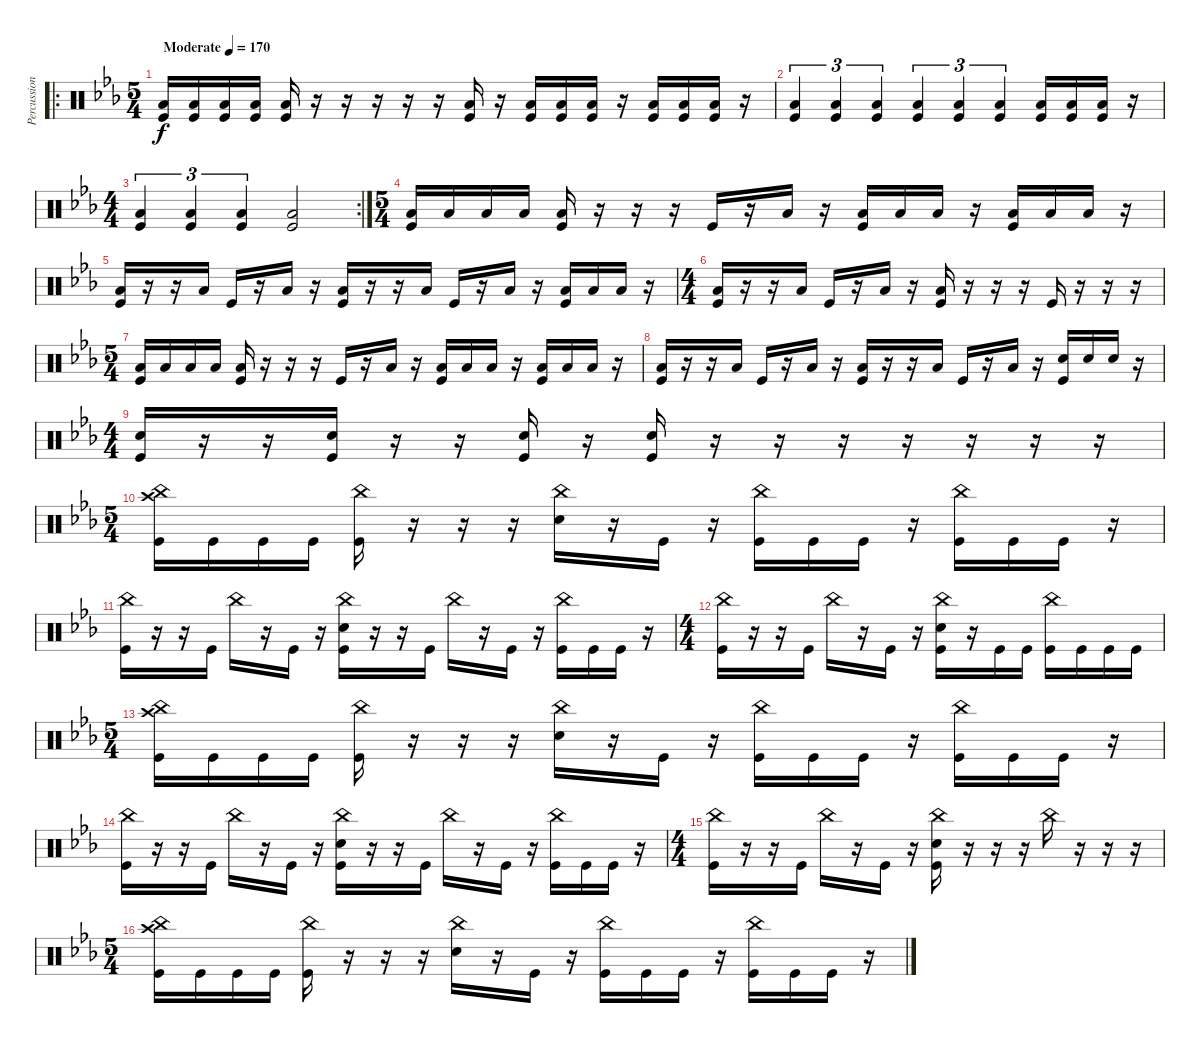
\track ("Percussion" "Percussion") {instrument percussion}
\staff {score}
\articulation defaults
\ro
\ts (5 4)
\tempo (170 "Moderate")
\clef neutral
\ks cminor
("Low Floor Tom (hit)" "Kick (hit)").16{dy f} ("Low Floor Tom (hit)" "Kick (hit)").16 ("Low Floor Tom (hit)" "Kick (hit)").16 ("Low Floor Tom (hit)" "Kick (hit)").16 ("Low Floor Tom (hit)" "Kick (hit)").16 r.16 r.16 r.16 r.16 r.16 ("Low Floor Tom (hit)" "Kick (hit)").16 r.16 ("Low Floor Tom (hit)" "Kick (hit)").16 ("Low Floor Tom (hit)" "Kick (hit)").16 ("Low Floor Tom (hit)" "Kick (hit)").16 r.16 ("Low Floor Tom (hit)" "Kick (hit)").16 ("Low Floor Tom (hit)" "Kick (hit)").16 ("Low Floor Tom (hit)" "Kick (hit)").16 r.16 |
("Low Floor Tom (hit)" "Kick (hit)").4{tu (3 2)} ("Low Floor Tom (hit)" "Kick (hit)").4{tu (3 2)} ("Low Floor Tom (hit)" "Kick (hit)").4{tu (3 2)} ("Low Floor Tom (hit)" "Kick (hit)").4{tu (3 2)} ("Low Floor Tom (hit)" "Kick (hit)").4{tu (3 2)} ("Low Floor Tom (hit)" "Kick (hit)").4{tu (3 2)} ("Low Floor Tom (hit)" "Kick (hit)").16 ("Low Floor Tom (hit)" "Kick (hit)").16 ("Low Floor Tom (hit)" "Kick (hit)").16 r.16 |
\rc 2
\ts (4 4)
("Low Floor Tom (hit)" "Kick (hit)").4{tu (3 2)} ("Low Floor Tom (hit)" "Kick (hit)").4{tu (3 2)} ("Low Floor Tom (hit)" "Kick (hit)").4{tu (3 2)} ("Low Floor Tom (hit)" "Kick (hit)").2 |
\ts (5 4)
("Low Floor Tom (hit)" "Kick (hit)").16 "Low Floor Tom (hit)".16 "Low Floor Tom (hit)".16 "Low Floor Tom (hit)".16 ("Low Floor Tom (hit)" "Kick (hit)").16 r.16 r.16 r.16 "Kick (hit)".16 r.16 "Low Floor Tom (hit)".16 r.16 ("Low Floor Tom (hit)" "Kick (hit)").16 "Low Floor Tom (hit)".16 "Low Floor Tom (hit)".16 r.16 ("Low Floor Tom (hit)" "Kick (hit)").16 "Low Floor Tom (hit)".16 "Low Floor Tom (hit)".16 r.16 |
("Low Floor Tom (hit)" "Kick (hit)").16 r.16 r.16 "Low Floor Tom (hit)".16 "Kick (hit)".16 r.16 "Low Floor Tom (hit)".16 r.16 ("Low Floor Tom (hit)" "Kick (hit)").16 r.16 r.16 "Low Floor Tom (hit)".16 "Kick (hit)".16 r.16 "Low Floor Tom (hit)".16 r.16 ("Low Floor Tom (hit)" "Kick (hit)").16 "Low Floor Tom (hit)".16 "Low Floor Tom (hit)".16 r.16 |
\ts (4 4)
("Low Floor Tom (hit)" "Kick (hit)").16 r.16 r.16 "Low Floor Tom (hit)".16 "Kick (hit)".16 r.16 "Low Floor Tom (hit)".16 r.16 ("Low Floor Tom (hit)" "Kick (hit)").16 r.16 r.16 r.16 "Kick (hit)".16 r.16 r.16 r.16 |
\ts (5 4)
("Low Floor Tom (hit)" "Kick (hit)").16 "Low Floor Tom (hit)".16 "Low Floor Tom (hit)".16 "Low Floor Tom (hit)".16 ("Low Floor Tom (hit)" "Kick (hit)").16 r.16 r.16 r.16 "Kick (hit)".16 r.16 "Low Floor Tom (hit)".16 r.16 ("Low Floor Tom (hit)" "Kick (hit)").16 "Low Floor Tom (hit)".16 "Low Floor Tom (hit)".16 r.16 ("Low Floor Tom (hit)" "Kick (hit)").16 "Low Floor Tom (hit)".16 "Low Floor Tom (hit)".16 r.16 |
("Low Floor Tom (hit)" "Kick (hit)").16 r.16 r.16 "Low Floor Tom (hit)".16 "Kick (hit)".16 r.16 "Low Floor Tom (hit)".16 r.16 ("Low Floor Tom (hit)" "Kick (hit)").16 r.16 r.16 "Low Floor Tom (hit)".16 "Kick (hit)".16 r.16 "Low Floor Tom (hit)".16 r.16 ("Snare (hit) 2" "Kick (hit)").16 "Snare (hit) 2".16 "Snare (hit) 2".16 r.16 |
\ts (4 4)
("Snare (hit) 2" "Kick (hit)").16 r.16 r.16 ("Snare (hit) 2" "Kick (hit)").16 r.16 r.16 ("Snare (hit) 2" "Kick (hit)").16 r.16 ("Snare (hit) 2" "Kick (hit)").16 r.16 r.16 r.16 r.16 r.16 r.16 r.16 |
\ts (5 4)
("China (hit)" "Crash high (hit)" "Kick (hit)").16 "Kick (hit)".16 "Kick (hit)".16 "Kick (hit)".16 ("China (hit)" "Kick (hit)").16 r.16 r.16 r.16 ("China (hit)" "Snare (hit) 2").16 r.16 "Kick (hit)".16 r.16 ("China (hit)" "Kick (hit)").16 "Kick (hit)".16 "Kick (hit)".16 r.16 ("China (hit)" "Kick (hit)").16 "Kick (hit)".16 "Kick (hit)".16 r.16 |
("China (hit)" "Kick (hit)").16 r.16 r.16 "Kick (hit)".16 "China (hit)".16 r.16 "Kick (hit)".16 r.16 ("China (hit)" "Snare (hit) 2" "Kick (hit)").16 r.16 r.16 "Kick (hit)".16 "China (hit)".16 r.16 "Kick (hit)".16 r.16 ("China (hit)" "Kick (hit)").16 "Kick (hit)".16 "Kick (hit)".16 r.16 |
\ts (4 4)
("China (hit)" "Kick (hit)").16 r.16 r.16 "Kick (hit)".16 "China (hit)".16 r.16 "Kick (hit)".16 r.16 ("China (hit)" "Snare (hit) 2" "Kick (hit)").16 r.16 "Kick (hit)".16 "Kick (hit)".16 ("China (hit)" "Kick (hit)").16 "Kick (hit)".16 "Kick (hit)".16 "Kick (hit)".16 |
\ts (5 4)
("China (hit)" "Crash high (hit)" "Kick (hit)").16 "Kick (hit)".16 "Kick (hit)".16 "Kick (hit)".16 ("China (hit)" "Kick (hit)").16 r.16 r.16 r.16 ("China (hit)" "Snare (hit) 2").16 r.16 "Kick (hit)".16 r.16 ("China (hit)" "Kick (hit)").16 "Kick (hit)".16 "Kick (hit)".16 r.16 ("China (hit)" "Kick (hit)").16 "Kick (hit)".16 "Kick (hit)".16 r.16 |
("China (hit)" "Kick (hit)").16 r.16 r.16 "Kick (hit)".16 "China (hit)".16 r.16 "Kick (hit)".16 r.16 ("China (hit)" "Snare (hit) 2" "Kick (hit)").16 r.16 r.16 "Kick (hit)".16 "China (hit)".16 r.16 "Kick (hit)".16 r.16 ("China (hit)" "Kick (hit)").16 "Kick (hit)".16 "Kick (hit)".16 r.16 |
\ts (4 4)
("China (hit)" "Kick (hit)").16 r.16 r.16 "Kick (hit)".16 "China (hit)".16 r.16 "Kick (hit)".16 r.16 ("China (hit)" "Snare (hit) 2" "Kick (hit)").16 r.16 r.16 r.16 "China (hit)".16 r.16 r.16 r.16 |
\ts (5 4)
("China (hit)" "Crash high (hit)" "Kick (hit)").16 "Kick (hit)".16 "Kick (hit)".16 "Kick (hit)".16 ("China (hit)" "Kick (hit)").16 r.16 r.16 r.16 ("China (hit)" "Snare (hit) 2").16 r.16 "Kick (hit)".16 r.16 ("China (hit)" "Kick (hit)").16 "Kick (hit)".16 "Kick (hit)".16 r.16 ("China (hit)" "Kick (hit)").16 "Kick (hit)".16 "Kick (hit)".16 r.16
